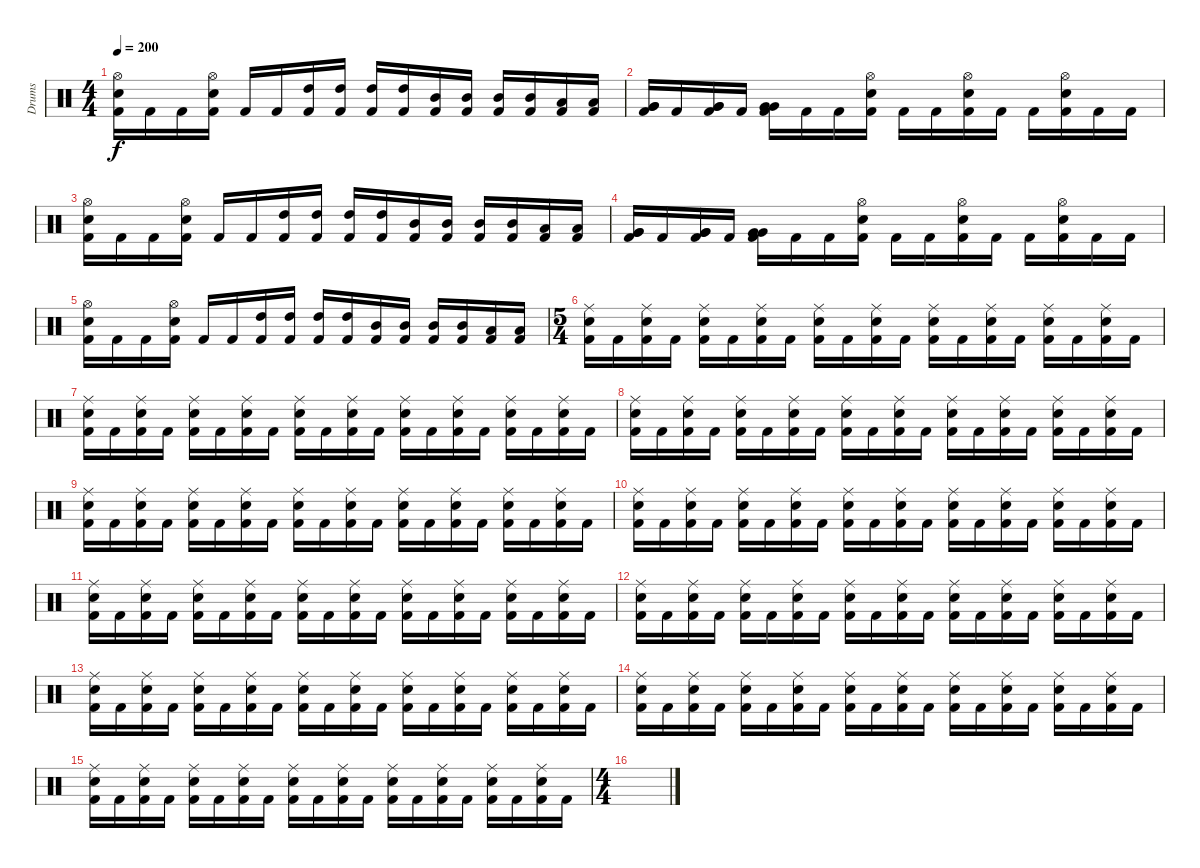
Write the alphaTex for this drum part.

\track ("Drums" "Drums") {instrument percussion}
\staff {score}
\articulation defaults
\ts (4 4)
\tempo 200
\clef neutral
\ks c
("Hi-Hat (open)" "Electric Snare (hit)" "Kick (hit) 2").16{dy f} "Kick (hit) 2".16 "Kick (hit) 2".16 ("Hi-Hat (open)" "Electric Snare (hit)" "Kick (hit) 2").16 "Kick (hit) 2".16 "Kick (hit) 2".16 ("High Tom (hit)" "Kick (hit) 2").16 ("High Tom (hit)" "Kick (hit) 2").16 ("High Tom (hit)" "Kick (hit) 2").16 ("High Tom (hit)" "Kick (hit) 2").16 ("Mid Tom (hit)" "Kick (hit) 2").16 ("Mid Tom (hit)" "Kick (hit) 2").16 ("Mid Tom (hit)" "Kick (hit) 2").16 ("Mid Tom (hit)" "Kick (hit) 2").16 ("Low Tom (hit)" "Kick (hit) 2").16 ("Low Tom (hit)" "Kick (hit) 2").16 |
("Very Low Tom (hit)" "Very Low Tom (hit)" "Kick (hit) 2").16 "Kick (hit) 2".16 ("Very Low Tom (hit)" "Very Low Tom (hit)" "Kick (hit) 2").16 "Kick (hit) 2".16 ("Very Low Tom (hit)" "Very Low Tom (hit)" "Kick (hit) 2").16 "Kick (hit) 2".16 "Kick (hit) 2".16 ("Hi-Hat (open)" "Electric Snare (hit)" "Kick (hit) 2").16 "Kick (hit) 2".16 "Kick (hit) 2".16 ("Hi-Hat (open)" "Electric Snare (hit)" "Kick (hit) 2").16 "Kick (hit) 2".16 "Kick (hit) 2".16 ("Hi-Hat (open)" "Electric Snare (hit)" "Kick (hit) 2").16 "Kick (hit) 2".16 "Kick (hit) 2".16 |
("Hi-Hat (open)" "Electric Snare (hit)" "Kick (hit) 2").16 "Kick (hit) 2".16 "Kick (hit) 2".16 ("Hi-Hat (open)" "Electric Snare (hit)" "Kick (hit) 2").16 "Kick (hit) 2".16 "Kick (hit) 2".16 ("High Tom (hit)" "Kick (hit) 2").16 ("High Tom (hit)" "Kick (hit) 2").16 ("High Tom (hit)" "Kick (hit) 2").16 ("High Tom (hit)" "Kick (hit) 2").16 ("Mid Tom (hit)" "Kick (hit) 2").16 ("Mid Tom (hit)" "Kick (hit) 2").16 ("Mid Tom (hit)" "Kick (hit) 2").16 ("Mid Tom (hit)" "Kick (hit) 2").16 ("Low Tom (hit)" "Kick (hit) 2").16 ("Low Tom (hit)" "Kick (hit) 2").16 |
("Very Low Tom (hit)" "Very Low Tom (hit)" "Kick (hit) 2").16 "Kick (hit) 2".16 ("Very Low Tom (hit)" "Very Low Tom (hit)" "Kick (hit) 2").16 "Kick (hit) 2".16 ("Very Low Tom (hit)" "Very Low Tom (hit)" "Kick (hit) 2").16 "Kick (hit) 2".16 "Kick (hit) 2".16 ("Hi-Hat (open)" "Electric Snare (hit)" "Kick (hit) 2").16 "Kick (hit) 2".16 "Kick (hit) 2".16 ("Hi-Hat (open)" "Electric Snare (hit)" "Kick (hit) 2").16 "Kick (hit) 2".16 "Kick (hit) 2".16 ("Hi-Hat (open)" "Electric Snare (hit)" "Kick (hit) 2").16 "Kick (hit) 2".16 "Kick (hit) 2".16 |
("Hi-Hat (open)" "Electric Snare (hit)" "Kick (hit) 2").16 "Kick (hit) 2".16 "Kick (hit) 2".16 ("Hi-Hat (open)" "Electric Snare (hit)" "Kick (hit) 2").16 "Kick (hit) 2".16 "Kick (hit) 2".16 ("High Tom (hit)" "Kick (hit) 2").16 ("High Tom (hit)" "Kick (hit) 2").16 ("High Tom (hit)" "Kick (hit) 2").16 ("High Tom (hit)" "Kick (hit) 2").16 ("Mid Tom (hit)" "Kick (hit) 2").16 ("Mid Tom (hit)" "Kick (hit) 2").16 ("Mid Tom (hit)" "Kick (hit) 2").16 ("Mid Tom (hit)" "Kick (hit) 2").16 ("Low Tom (hit)" "Kick (hit) 2").16 ("Low Tom (hit)" "Kick (hit) 2").16 |
\ts (5 4)
("Ride (middle)" "Electric Snare (hit)" "Kick (hit) 2").16 "Kick (hit) 2".16 ("Ride (middle)" "Electric Snare (hit)" "Kick (hit) 2").16 "Kick (hit) 2".16 ("Ride (middle)" "Electric Snare (hit)" "Kick (hit) 2").16 "Kick (hit) 2".16 ("Ride (middle)" "Electric Snare (hit)" "Kick (hit) 2").16 "Kick (hit) 2".16 ("Ride (middle)" "Electric Snare (hit)" "Kick (hit) 2").16 "Kick (hit) 2".16 ("Ride (middle)" "Electric Snare (hit)" "Kick (hit) 2").16 "Kick (hit) 2".16 ("Ride (middle)" "Electric Snare (hit)" "Kick (hit) 2").16 "Kick (hit) 2".16 ("Ride (middle)" "Electric Snare (hit)" "Kick (hit) 2").16 "Kick (hit) 2".16 ("Ride (middle)" "Electric Snare (hit)" "Kick (hit) 2").16 "Kick (hit) 2".16 ("Ride (middle)" "Electric Snare (hit)" "Kick (hit) 2").16 "Kick (hit) 2".16 |
("Ride (middle)" "Electric Snare (hit)" "Kick (hit) 2").16 "Kick (hit) 2".16 ("Ride (middle)" "Electric Snare (hit)" "Kick (hit) 2").16 "Kick (hit) 2".16 ("Ride (middle)" "Electric Snare (hit)" "Kick (hit) 2").16 "Kick (hit) 2".16 ("Ride (middle)" "Electric Snare (hit)" "Kick (hit) 2").16 "Kick (hit) 2".16 ("Ride (middle)" "Electric Snare (hit)" "Kick (hit) 2").16 "Kick (hit) 2".16 ("Ride (middle)" "Electric Snare (hit)" "Kick (hit) 2").16 "Kick (hit) 2".16 ("Ride (middle)" "Electric Snare (hit)" "Kick (hit) 2").16 "Kick (hit) 2".16 ("Ride (middle)" "Electric Snare (hit)" "Kick (hit) 2").16 "Kick (hit) 2".16 ("Ride (middle)" "Electric Snare (hit)" "Kick (hit) 2").16 "Kick (hit) 2".16 ("Ride (middle)" "Electric Snare (hit)" "Kick (hit) 2").16 "Kick (hit) 2".16 |
("Ride (middle)" "Electric Snare (hit)" "Kick (hit) 2").16 "Kick (hit) 2".16 ("Ride (middle)" "Electric Snare (hit)" "Kick (hit) 2").16 "Kick (hit) 2".16 ("Ride (middle)" "Electric Snare (hit)" "Kick (hit) 2").16 "Kick (hit) 2".16 ("Ride (middle)" "Electric Snare (hit)" "Kick (hit) 2").16 "Kick (hit) 2".16 ("Ride (middle)" "Electric Snare (hit)" "Kick (hit) 2").16 "Kick (hit) 2".16 ("Ride (middle)" "Electric Snare (hit)" "Kick (hit) 2").16 "Kick (hit) 2".16 ("Ride (middle)" "Electric Snare (hit)" "Kick (hit) 2").16 "Kick (hit) 2".16 ("Ride (middle)" "Electric Snare (hit)" "Kick (hit) 2").16 "Kick (hit) 2".16 ("Ride (middle)" "Electric Snare (hit)" "Kick (hit) 2").16 "Kick (hit) 2".16 ("Ride (middle)" "Electric Snare (hit)" "Kick (hit) 2").16 "Kick (hit) 2".16 |
("Ride (middle)" "Electric Snare (hit)" "Kick (hit) 2").16 "Kick (hit) 2".16 ("Ride (middle)" "Electric Snare (hit)" "Kick (hit) 2").16 "Kick (hit) 2".16 ("Ride (middle)" "Electric Snare (hit)" "Kick (hit) 2").16 "Kick (hit) 2".16 ("Ride (middle)" "Electric Snare (hit)" "Kick (hit) 2").16 "Kick (hit) 2".16 ("Ride (middle)" "Electric Snare (hit)" "Kick (hit) 2").16 "Kick (hit) 2".16 ("Ride (middle)" "Electric Snare (hit)" "Kick (hit) 2").16 "Kick (hit) 2".16 ("Ride (middle)" "Electric Snare (hit)" "Kick (hit) 2").16 "Kick (hit) 2".16 ("Ride (middle)" "Electric Snare (hit)" "Kick (hit) 2").16 "Kick (hit) 2".16 ("Ride (middle)" "Electric Snare (hit)" "Kick (hit) 2").16 "Kick (hit) 2".16 ("Ride (middle)" "Electric Snare (hit)" "Kick (hit) 2").16 "Kick (hit) 2".16 |
("Ride (middle)" "Electric Snare (hit)" "Kick (hit) 2").16 "Kick (hit) 2".16 ("Ride (middle)" "Electric Snare (hit)" "Kick (hit) 2").16 "Kick (hit) 2".16 ("Ride (middle)" "Electric Snare (hit)" "Kick (hit) 2").16 "Kick (hit) 2".16 ("Ride (middle)" "Electric Snare (hit)" "Kick (hit) 2").16 "Kick (hit) 2".16 ("Ride (middle)" "Electric Snare (hit)" "Kick (hit) 2").16 "Kick (hit) 2".16 ("Ride (middle)" "Electric Snare (hit)" "Kick (hit) 2").16 "Kick (hit) 2".16 ("Ride (middle)" "Electric Snare (hit)" "Kick (hit) 2").16 "Kick (hit) 2".16 ("Ride (middle)" "Electric Snare (hit)" "Kick (hit) 2").16 "Kick (hit) 2".16 ("Ride (middle)" "Electric Snare (hit)" "Kick (hit) 2").16 "Kick (hit) 2".16 ("Ride (middle)" "Electric Snare (hit)" "Kick (hit) 2").16 "Kick (hit) 2".16 |
("Ride (middle)" "Electric Snare (hit)" "Kick (hit) 2").16 "Kick (hit) 2".16 ("Ride (middle)" "Electric Snare (hit)" "Kick (hit) 2").16 "Kick (hit) 2".16 ("Ride (middle)" "Electric Snare (hit)" "Kick (hit) 2").16 "Kick (hit) 2".16 ("Ride (middle)" "Electric Snare (hit)" "Kick (hit) 2").16 "Kick (hit) 2".16 ("Ride (middle)" "Electric Snare (hit)" "Kick (hit) 2").16 "Kick (hit) 2".16 ("Ride (middle)" "Electric Snare (hit)" "Kick (hit) 2").16 "Kick (hit) 2".16 ("Ride (middle)" "Electric Snare (hit)" "Kick (hit) 2").16 "Kick (hit) 2".16 ("Ride (middle)" "Electric Snare (hit)" "Kick (hit) 2").16 "Kick (hit) 2".16 ("Ride (middle)" "Electric Snare (hit)" "Kick (hit) 2").16 "Kick (hit) 2".16 ("Ride (middle)" "Electric Snare (hit)" "Kick (hit) 2").16 "Kick (hit) 2".16 |
("Ride (middle)" "Electric Snare (hit)" "Kick (hit) 2").16 "Kick (hit) 2".16 ("Ride (middle)" "Electric Snare (hit)" "Kick (hit) 2").16 "Kick (hit) 2".16 ("Ride (middle)" "Electric Snare (hit)" "Kick (hit) 2").16 "Kick (hit) 2".16 ("Ride (middle)" "Electric Snare (hit)" "Kick (hit) 2").16 "Kick (hit) 2".16 ("Ride (middle)" "Electric Snare (hit)" "Kick (hit) 2").16 "Kick (hit) 2".16 ("Ride (middle)" "Electric Snare (hit)" "Kick (hit) 2").16 "Kick (hit) 2".16 ("Ride (middle)" "Electric Snare (hit)" "Kick (hit) 2").16 "Kick (hit) 2".16 ("Ride (middle)" "Electric Snare (hit)" "Kick (hit) 2").16 "Kick (hit) 2".16 ("Ride (middle)" "Electric Snare (hit)" "Kick (hit) 2").16 "Kick (hit) 2".16 ("Ride (middle)" "Electric Snare (hit)" "Kick (hit) 2").16 "Kick (hit) 2".16 |
("Ride (middle)" "Electric Snare (hit)" "Kick (hit) 2").16 "Kick (hit) 2".16 ("Ride (middle)" "Electric Snare (hit)" "Kick (hit) 2").16 "Kick (hit) 2".16 ("Ride (middle)" "Electric Snare (hit)" "Kick (hit) 2").16 "Kick (hit) 2".16 ("Ride (middle)" "Electric Snare (hit)" "Kick (hit) 2").16 "Kick (hit) 2".16 ("Ride (middle)" "Electric Snare (hit)" "Kick (hit) 2").16 "Kick (hit) 2".16 ("Ride (middle)" "Electric Snare (hit)" "Kick (hit) 2").16 "Kick (hit) 2".16 ("Ride (middle)" "Electric Snare (hit)" "Kick (hit) 2").16 "Kick (hit) 2".16 ("Ride (middle)" "Electric Snare (hit)" "Kick (hit) 2").16 "Kick (hit) 2".16 ("Ride (middle)" "Electric Snare (hit)" "Kick (hit) 2").16 "Kick (hit) 2".16 ("Ride (middle)" "Electric Snare (hit)" "Kick (hit) 2").16 "Kick (hit) 2".16 |
("Ride (middle)" "Electric Snare (hit)" "Kick (hit) 2").16 "Kick (hit) 2".16 ("Ride (middle)" "Electric Snare (hit)" "Kick (hit) 2").16 "Kick (hit) 2".16 ("Ride (middle)" "Electric Snare (hit)" "Kick (hit) 2").16 "Kick (hit) 2".16 ("Ride (middle)" "Electric Snare (hit)" "Kick (hit) 2").16 "Kick (hit) 2".16 ("Ride (middle)" "Electric Snare (hit)" "Kick (hit) 2").16 "Kick (hit) 2".16 ("Ride (middle)" "Electric Snare (hit)" "Kick (hit) 2").16 "Kick (hit) 2".16 ("Ride (middle)" "Electric Snare (hit)" "Kick (hit) 2").16 "Kick (hit) 2".16 ("Ride (middle)" "Electric Snare (hit)" "Kick (hit) 2").16 "Kick (hit) 2".16 ("Ride (middle)" "Electric Snare (hit)" "Kick (hit) 2").16 "Kick (hit) 2".16 ("Ride (middle)" "Electric Snare (hit)" "Kick (hit) 2").16 "Kick (hit) 2".16 |
("Ride (middle)" "Electric Snare (hit)" "Kick (hit) 2").16 "Kick (hit) 2".16 ("Ride (middle)" "Electric Snare (hit)" "Kick (hit) 2").16 "Kick (hit) 2".16 ("Ride (middle)" "Electric Snare (hit)" "Kick (hit) 2").16 "Kick (hit) 2".16 ("Ride (middle)" "Electric Snare (hit)" "Kick (hit) 2").16 "Kick (hit) 2".16 ("Ride (middle)" "Electric Snare (hit)" "Kick (hit) 2").16 "Kick (hit) 2".16 ("Ride (middle)" "Electric Snare (hit)" "Kick (hit) 2").16 "Kick (hit) 2".16 ("Ride (middle)" "Electric Snare (hit)" "Kick (hit) 2").16 "Kick (hit) 2".16 ("Ride (middle)" "Electric Snare (hit)" "Kick (hit) 2").16 "Kick (hit) 2".16 ("Ride (middle)" "Electric Snare (hit)" "Kick (hit) 2").16 "Kick (hit) 2".16 ("Ride (middle)" "Electric Snare (hit)" "Kick (hit) 2").16 "Kick (hit) 2".16 |
\ts (4 4)
